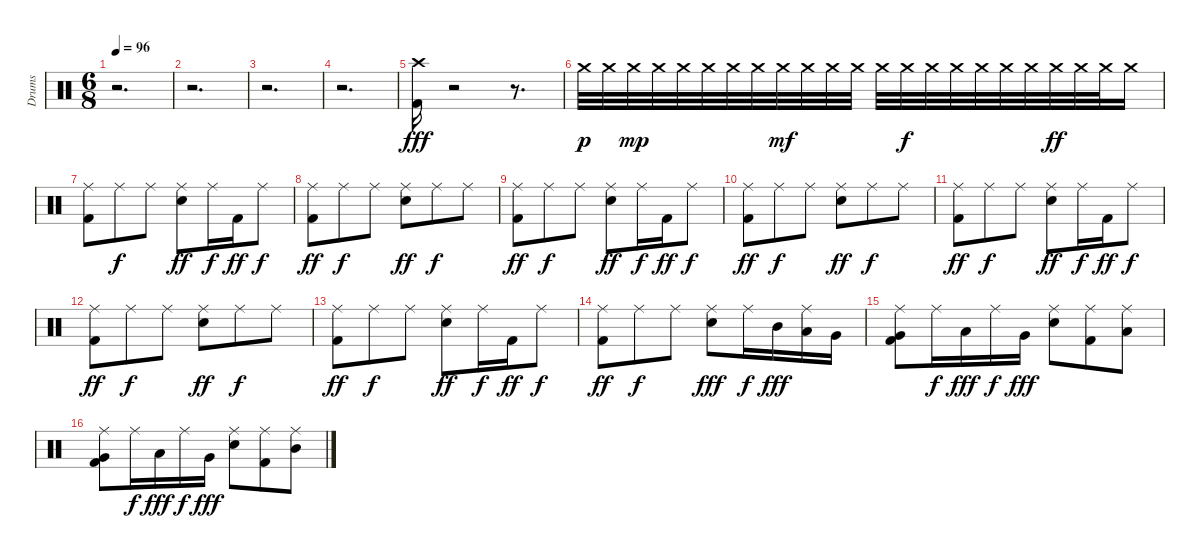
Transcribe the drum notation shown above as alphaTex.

\track ("Drums" "Drums") {instrument percussion}
\staff {score}
\articulation defaults
\ts (6 8)
\tempo 96
\clef neutral
\ks c
r.2{d dy fff} |
r.2{d} |
r.2{d} |
r.2{d} |
("Kick (hit) 2" "Crash high (hit)").16 r.2 r.8{d} |
"Crash medium (hit)".32{dy p} "Crash medium (hit)".32 "Crash medium (hit)".32{dy mp} "Crash medium (hit)".32 "Crash medium (hit)".32 "Crash medium (hit)".32 "Crash medium (hit)".32 "Crash medium (hit)".32 "Crash medium (hit)".32{dy mf} "Crash medium (hit)".32 "Crash medium (hit)".32 "Crash medium (hit)".32 "Crash medium (hit)".32 "Crash medium (hit)".32{dy f} "Crash medium (hit)".32 "Crash medium (hit)".32 "Crash medium (hit)".32 "Crash medium (hit)".32 "Crash medium (hit)".32 "Crash medium (hit)".32{dy ff} "Crash medium (hit)".32 "Crash medium (hit)".32 "Crash medium (hit)".16 |
("Ride (middle)" "Kick (hit) 2").8 "Ride (middle)".8{dy f} "Ride (middle)".8 ("Ride (middle)" "Electric Snare (hit)").8{dy ff} "Ride (middle)".16{dy f} "Kick (hit) 2".16{dy ff} "Ride (middle)".8{dy f} |
("Ride (middle)" "Kick (hit) 2").8{dy ff} "Ride (middle)".8{dy f} "Ride (middle)".8 ("Ride (middle)" "Electric Snare (hit)").8{dy ff} "Ride (middle)".8{dy f} "Ride (middle)".8 |
("Kick (hit) 2" "Ride (middle)").8{dy ff} "Ride (middle)".8{dy f} "Ride (middle)".8 ("Electric Snare (hit)" "Ride (middle)").8{dy ff} "Ride (middle)".16{dy f} "Kick (hit) 2".16{dy ff} "Ride (middle)".8{dy f} |
("Kick (hit) 2" "Ride (middle)").8{dy ff} "Ride (middle)".8{dy f} "Ride (middle)".8 ("Electric Snare (hit)" "Ride (middle)").8{dy ff} "Ride (middle)".8{dy f} "Ride (middle)".8 |
("Kick (hit) 2" "Ride (middle)").8{dy ff} "Ride (middle)".8{dy f} "Ride (middle)".8 ("Electric Snare (hit)" "Ride (middle)").8{dy ff} "Ride (middle)".16{dy f} "Kick (hit) 2".16{dy ff} "Ride (middle)".8{dy f} |
("Kick (hit) 2" "Ride (middle)").8{dy ff} "Ride (middle)".8{dy f} "Ride (middle)".8 ("Electric Snare (hit)" "Ride (middle)").8{dy ff} "Ride (middle)".8{dy f} "Ride (middle)".8 |
("Kick (hit) 2" "Ride (middle)").8{dy ff} "Ride (middle)".8{dy f} "Ride (middle)".8 ("Electric Snare (hit)" "Ride (middle)").8{dy ff} "Ride (middle)".16{dy f} "Kick (hit) 2".16{dy ff} "Ride (middle)".8{dy f} |
("Kick (hit) 2" "Ride (middle)").8{dy ff} "Ride (middle)".8{dy f} "Ride (middle)".8 ("Electric Snare (hit)" "Ride (middle)").8{dy fff} "Ride (middle)".16{dy f} "Mid Tom (hit)".16{dy fff} ("Ride (middle)" "Low Tom (hit)").16 "Very Low Tom (hit)".16 |
("Ride (middle)" "Kick (hit) 2" "Very Low Tom (hit)").8 "Ride (middle)".16{dy f} "Low Tom (hit)".16{dy fff} "Ride (middle)".16{dy f} "Very Low Tom (hit)".16{dy fff} ("Ride (middle)" "Electric Snare (hit)").8 ("Ride (middle)" "Kick (hit) 2").8 ("Ride (middle)" "Low Tom (hit)").8 |
("Ride (middle)" "Kick (hit) 2" "Very Low Tom (hit)").8 "Ride (middle)".16{dy f} "Low Tom (hit)".16{dy fff} "Ride (middle)".16{dy f} "Very Low Tom (hit)".16{dy fff} ("Ride (middle)" "Electric Snare (hit)").8 ("Ride (middle)" "Kick (hit) 2").8 ("Ride (middle)" "Mid Tom (hit)").8
